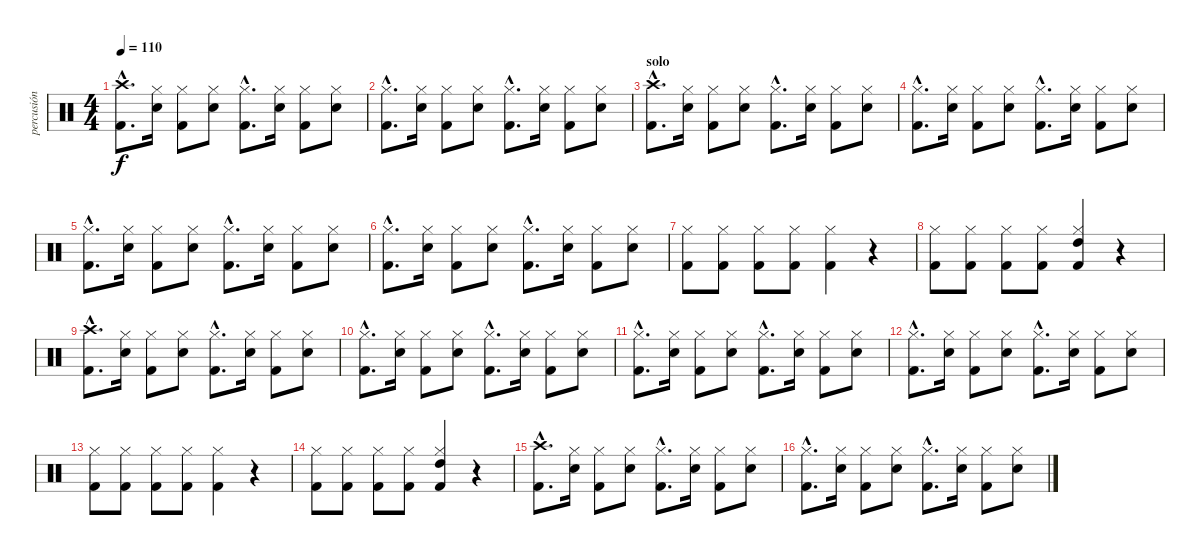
\track ("percusión" "percusión") {instrument percussion}
\staff {score}
\articulation defaults
\ts (4 4)
\tempo 110
\clef neutral
\ks c
("Kick (hit) 2"{hac} "Crash high (hit)"{hac}).8{d dy f} ("Snare (hit) 2" "Hi-Hat (closed)").16 ("Kick (hit) 2" "Hi-Hat (closed)").8 ("Snare (hit) 2" "Hi-Hat (closed)").8 ("Kick (hit) 2"{hac} "Hi-Hat (closed)"{hac}).8{d} ("Snare (hit) 2" "Hi-Hat (closed)").16 ("Kick (hit) 2" "Hi-Hat (closed)").8 ("Snare (hit) 2" "Hi-Hat (closed)").8 |
("Kick (hit) 2"{hac} "Hi-Hat (closed)"{hac}).8{d} ("Snare (hit) 2" "Hi-Hat (closed)").16 ("Kick (hit) 2" "Hi-Hat (closed)").8 ("Snare (hit) 2" "Hi-Hat (closed)").8 ("Kick (hit) 2"{hac} "Hi-Hat (closed)"{hac}).8{d} ("Snare (hit) 2" "Hi-Hat (closed)").16 ("Kick (hit) 2" "Hi-Hat (closed)").8 ("Snare (hit) 2" "Hi-Hat (closed)").8 |
\section ("" "solo")
("Kick (hit) 2"{hac} "Crash high (hit)"{hac}).8{d} ("Snare (hit) 2" "Hi-Hat (closed)").16 ("Kick (hit) 2" "Hi-Hat (closed)").8 ("Snare (hit) 2" "Hi-Hat (closed)").8 ("Kick (hit) 2"{hac} "Hi-Hat (closed)"{hac}).8{d} ("Snare (hit) 2" "Hi-Hat (closed)").16 ("Kick (hit) 2" "Hi-Hat (closed)").8 ("Snare (hit) 2" "Hi-Hat (closed)").8 |
("Kick (hit) 2"{hac} "Hi-Hat (closed)"{hac}).8{d} ("Snare (hit) 2" "Hi-Hat (closed)").16 ("Kick (hit) 2" "Hi-Hat (closed)").8 ("Snare (hit) 2" "Hi-Hat (closed)").8 ("Kick (hit) 2"{hac} "Hi-Hat (closed)"{hac}).8{d} ("Snare (hit) 2" "Hi-Hat (closed)").16 ("Kick (hit) 2" "Hi-Hat (closed)").8 ("Snare (hit) 2" "Hi-Hat (closed)").8 |
("Kick (hit) 2"{hac} "Hi-Hat (closed)"{hac}).8{d} ("Snare (hit) 2" "Hi-Hat (closed)").16 ("Kick (hit) 2" "Hi-Hat (closed)").8 ("Snare (hit) 2" "Hi-Hat (closed)").8 ("Kick (hit) 2"{hac} "Hi-Hat (closed)"{hac}).8{d} ("Snare (hit) 2" "Hi-Hat (closed)").16 ("Kick (hit) 2" "Hi-Hat (closed)").8 ("Snare (hit) 2" "Hi-Hat (closed)").8 |
("Kick (hit) 2"{hac} "Hi-Hat (closed)"{hac}).8{d} ("Snare (hit) 2" "Hi-Hat (closed)").16 ("Kick (hit) 2" "Hi-Hat (closed)").8 ("Snare (hit) 2" "Hi-Hat (closed)").8 ("Kick (hit) 2"{hac} "Hi-Hat (closed)"{hac}).8{d} ("Snare (hit) 2" "Hi-Hat (closed)").16 ("Kick (hit) 2" "Hi-Hat (closed)").8 ("Snare (hit) 2" "Hi-Hat (closed)").8 |
("Kick (hit) 2" "Hi-Hat (closed)").8 ("Kick (hit) 2" "Hi-Hat (closed)").8 ("Kick (hit) 2" "Hi-Hat (closed)").8 ("Kick (hit) 2" "Hi-Hat (closed)").8 ("Kick (hit) 2" "Hi-Hat (closed)").4 r.4 |
("Kick (hit) 2" "Hi-Hat (closed)").8 ("Kick (hit) 2" "Hi-Hat (closed)").8 ("Kick (hit) 2" "Hi-Hat (closed)").8 ("Kick (hit) 2" "Hi-Hat (closed)").8 ("Kick (hit) 2" "Hi-Hat (closed)" "High Tom (hit)").4 r.4 |
("Kick (hit) 2"{hac} "Crash high (hit)"{hac}).8{d} ("Snare (hit) 2" "Hi-Hat (closed)").16 ("Kick (hit) 2" "Hi-Hat (closed)").8 ("Snare (hit) 2" "Hi-Hat (closed)").8 ("Kick (hit) 2"{hac} "Hi-Hat (closed)"{hac}).8{d} ("Snare (hit) 2" "Hi-Hat (closed)").16 ("Kick (hit) 2" "Hi-Hat (closed)").8 ("Snare (hit) 2" "Hi-Hat (closed)").8 |
("Kick (hit) 2"{hac} "Hi-Hat (closed)"{hac}).8{d} ("Snare (hit) 2" "Hi-Hat (closed)").16 ("Kick (hit) 2" "Hi-Hat (closed)").8 ("Snare (hit) 2" "Hi-Hat (closed)").8 ("Kick (hit) 2"{hac} "Hi-Hat (closed)"{hac}).8{d} ("Snare (hit) 2" "Hi-Hat (closed)").16 ("Kick (hit) 2" "Hi-Hat (closed)").8 ("Snare (hit) 2" "Hi-Hat (closed)").8 |
("Kick (hit) 2"{hac} "Hi-Hat (closed)"{hac}).8{d} ("Snare (hit) 2" "Hi-Hat (closed)").16 ("Kick (hit) 2" "Hi-Hat (closed)").8 ("Snare (hit) 2" "Hi-Hat (closed)").8 ("Kick (hit) 2"{hac} "Hi-Hat (closed)"{hac}).8{d} ("Snare (hit) 2" "Hi-Hat (closed)").16 ("Kick (hit) 2" "Hi-Hat (closed)").8 ("Snare (hit) 2" "Hi-Hat (closed)").8 |
("Kick (hit) 2"{hac} "Hi-Hat (closed)"{hac}).8{d} ("Snare (hit) 2" "Hi-Hat (closed)").16 ("Kick (hit) 2" "Hi-Hat (closed)").8 ("Snare (hit) 2" "Hi-Hat (closed)").8 ("Kick (hit) 2"{hac} "Hi-Hat (closed)"{hac}).8{d} ("Snare (hit) 2" "Hi-Hat (closed)").16 ("Kick (hit) 2" "Hi-Hat (closed)").8 ("Snare (hit) 2" "Hi-Hat (closed)").8 |
("Kick (hit) 2" "Hi-Hat (closed)").8 ("Kick (hit) 2" "Hi-Hat (closed)").8 ("Kick (hit) 2" "Hi-Hat (closed)").8 ("Kick (hit) 2" "Hi-Hat (closed)").8 ("Kick (hit) 2" "Hi-Hat (closed)").4 r.4 |
("Kick (hit) 2" "Hi-Hat (closed)").8 ("Kick (hit) 2" "Hi-Hat (closed)").8 ("Kick (hit) 2" "Hi-Hat (closed)").8 ("Kick (hit) 2" "Hi-Hat (closed)").8 ("Kick (hit) 2" "Hi-Hat (closed)" "High Tom (hit)").4 r.4 |
("Kick (hit) 2"{hac} "Crash high (hit)"{hac}).8{d} ("Snare (hit) 2" "Hi-Hat (closed)").16 ("Kick (hit) 2" "Hi-Hat (closed)").8 ("Snare (hit) 2" "Hi-Hat (closed)").8 ("Kick (hit) 2"{hac} "Hi-Hat (closed)"{hac}).8{d} ("Snare (hit) 2" "Hi-Hat (closed)").16 ("Kick (hit) 2" "Hi-Hat (closed)").8 ("Snare (hit) 2" "Hi-Hat (closed)").8 |
("Kick (hit) 2"{hac} "Hi-Hat (closed)"{hac}).8{d} ("Snare (hit) 2" "Hi-Hat (closed)").16 ("Kick (hit) 2" "Hi-Hat (closed)").8 ("Snare (hit) 2" "Hi-Hat (closed)").8 ("Kick (hit) 2"{hac} "Hi-Hat (closed)"{hac}).8{d} ("Snare (hit) 2" "Hi-Hat (closed)").16 ("Kick (hit) 2" "Hi-Hat (closed)").8 ("Snare (hit) 2" "Hi-Hat (closed)").8
